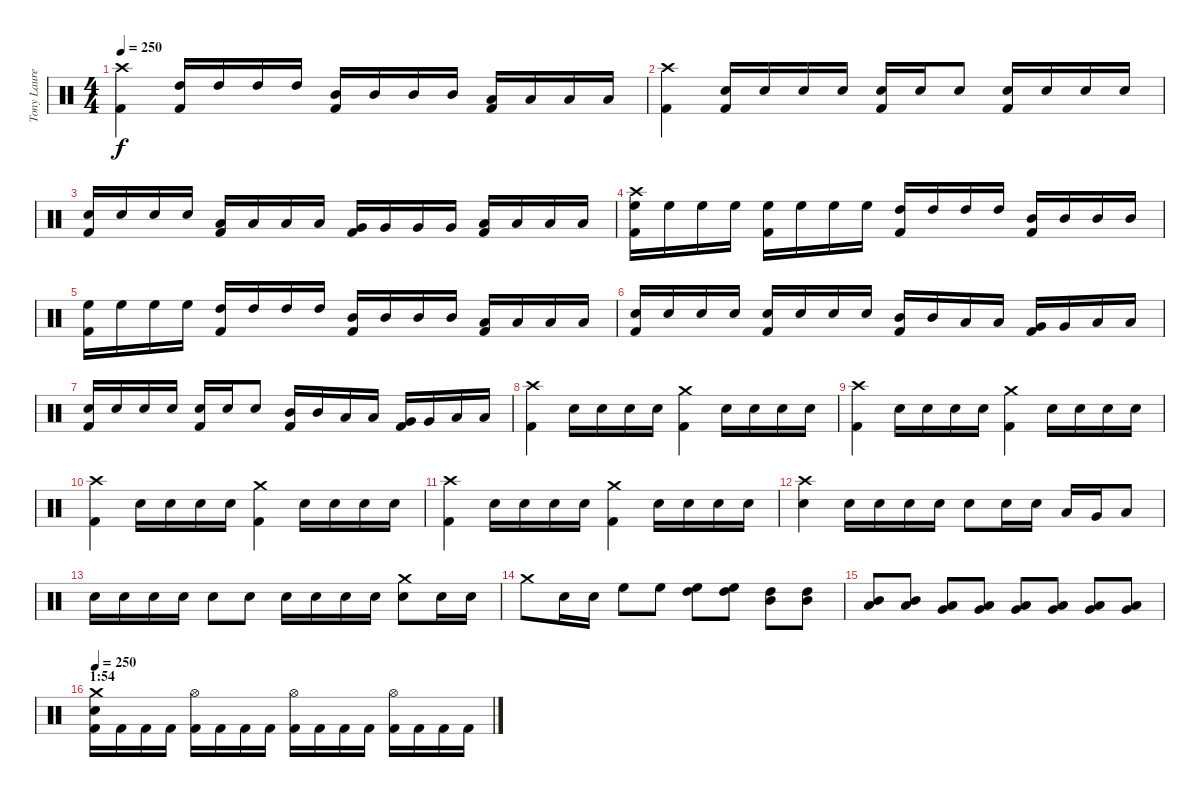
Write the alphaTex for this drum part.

\track ("Tony Laureano" "Tony Laure") {instrument percussion}
\staff {score}
\articulation defaults
\ts (4 4)
\tempo 250
\clef neutral
\ks c
("Crash high (hit)" "Kick (hit) 2").4{dy f} ("High Tom (hit)" "Kick (hit) 2").16 "High Tom (hit)".16 "High Tom (hit)".16 "High Tom (hit)".16 ("Mid Tom (hit)" "Kick (hit) 2").16 "Mid Tom (hit)".16 "Mid Tom (hit)".16 "Mid Tom (hit)".16 ("Low Tom (hit)" "Kick (hit) 2").16 "Low Tom (hit)".16 "Low Tom (hit)".16 "Low Tom (hit)".16 |
("Crash high (hit)" "Kick (hit) 2").4 ("Electric Snare (hit)" "Kick (hit) 2").16 "Electric Snare (hit)".16 "Electric Snare (hit)".16 "Electric Snare (hit)".16 ("Electric Snare (hit)" "Kick (hit) 2").16 "Electric Snare (hit)".16 "Electric Snare (hit)".8 ("Electric Snare (hit)" "Kick (hit) 2").16 "Electric Snare (hit)".16 "Electric Snare (hit)".16 "Electric Snare (hit)".16 |
("Electric Snare (hit)" "Kick (hit) 2").16 "Electric Snare (hit)".16 "Electric Snare (hit)".16 "Electric Snare (hit)".16 ("Low Tom (hit)" "Kick (hit) 2").16 "Low Tom (hit)".16 "Low Tom (hit)".16 "Low Tom (hit)".16 ("Very Low Tom (hit)" "Kick (hit) 2").16 "Very Low Tom (hit)".16 "Very Low Tom (hit)".16 "Very Low Tom (hit)".16 ("Low Floor Tom (hit)" "Kick (hit) 2").16 "Low Floor Tom (hit)".16 "Low Floor Tom (hit)".16 "Low Floor Tom (hit)".16 |
("Crash high (hit)" "High Floor Tom (hit)" "Kick (hit) 2").16 "High Floor Tom (hit)".16 "High Floor Tom (hit)".16 "High Floor Tom (hit)".16 ("High Floor Tom (hit)" "Kick (hit) 2").16 "High Floor Tom (hit)".16 "High Floor Tom (hit)".16 "High Floor Tom (hit)".16 ("High Tom (hit)" "Kick (hit) 2").16 "High Tom (hit)".16 "High Tom (hit)".16 "High Tom (hit)".16 ("Mid Tom (hit)" "Kick (hit) 2").16 "Mid Tom (hit)".16 "Mid Tom (hit)".16 "Mid Tom (hit)".16 |
("High Floor Tom (hit)" "Kick (hit) 2").16 "High Floor Tom (hit)".16 "High Floor Tom (hit)".16 "High Floor Tom (hit)".16 ("High Tom (hit)" "Kick (hit) 2").16 "High Tom (hit)".16 "High Tom (hit)".16 "High Tom (hit)".16 ("Mid Tom (hit)" "Kick (hit) 2").16 "Mid Tom (hit)".16 "Mid Tom (hit)".16 "Mid Tom (hit)".16 ("Low Tom (hit)" "Kick (hit) 2").16 "Low Tom (hit)".16 "Low Tom (hit)".16 "Low Tom (hit)".16 |
("Electric Snare (hit)" "Kick (hit) 2").16 "Electric Snare (hit)".16 "Electric Snare (hit)".16 "Electric Snare (hit)".16 ("Electric Snare (hit)" "Kick (hit) 2").16 "Electric Snare (hit)".16 "Electric Snare (hit)".16 "Electric Snare (hit)".16 ("Mid Tom (hit)" "Kick (hit) 2").16 "Mid Tom (hit)".16 "Low Tom (hit)".16 "Low Tom (hit)".16 ("Very Low Tom (hit)" "Kick (hit) 2").16 "Very Low Tom (hit)".16 "Low Floor Tom (hit)".16 "Low Floor Tom (hit)".16 |
("Electric Snare (hit)" "Kick (hit) 2").16 "Electric Snare (hit)".16 "Electric Snare (hit)".16 "Electric Snare (hit)".16 ("Electric Snare (hit)" "Kick (hit) 2").16 "Electric Snare (hit)".16 "Electric Snare (hit)".8 ("Mid Tom (hit)" "Kick (hit) 2").16 "Mid Tom (hit)".16 "Low Tom (hit)".16 "Low Tom (hit)".16 ("Very Low Tom (hit)" "Kick (hit) 2").16 "Very Low Tom (hit)".16 "Low Floor Tom (hit)".16 "Low Floor Tom (hit)".16 |
("Crash high (hit)" "Kick (hit) 2").4 "Electric Snare (hit)".16 "Electric Snare (hit)".16 "Electric Snare (hit)".16 "Electric Snare (hit)".16 ("Crash medium (hit)" "Kick (hit) 2").4 "Electric Snare (hit)".16 "Electric Snare (hit)".16 "Electric Snare (hit)".16 "Electric Snare (hit)".16 |
("Crash high (hit)" "Kick (hit) 2").4 "Electric Snare (hit)".16 "Electric Snare (hit)".16 "Electric Snare (hit)".16 "Electric Snare (hit)".16 ("Crash medium (hit)" "Kick (hit) 2").4 "Electric Snare (hit)".16 "Electric Snare (hit)".16 "Electric Snare (hit)".16 "Electric Snare (hit)".16 |
("Crash high (hit)" "Kick (hit) 2").4 "Electric Snare (hit)".16 "Electric Snare (hit)".16 "Electric Snare (hit)".16 "Electric Snare (hit)".16 ("Crash medium (hit)" "Kick (hit) 2").4 "Electric Snare (hit)".16 "Electric Snare (hit)".16 "Electric Snare (hit)".16 "Electric Snare (hit)".16 |
("Crash high (hit)" "Kick (hit) 2").4 "Electric Snare (hit)".16 "Electric Snare (hit)".16 "Electric Snare (hit)".16 "Electric Snare (hit)".16 ("Crash medium (hit)" "Kick (hit) 2").4 "Electric Snare (hit)".16 "Electric Snare (hit)".16 "Electric Snare (hit)".16 "Electric Snare (hit)".16 |
("Crash high (hit)" "Electric Snare (hit)").4 "Electric Snare (hit)".16 "Electric Snare (hit)".16 "Electric Snare (hit)".16 "Electric Snare (hit)".16 "Electric Snare (hit)".8 "Electric Snare (hit)".16 "Electric Snare (hit)".16 "Low Tom (hit)".16 "Very Low Tom (hit)".16 "Low Floor Tom (hit)".8 |
"Electric Snare (hit)".16 "Electric Snare (hit)".16 "Electric Snare (hit)".16 "Electric Snare (hit)".16 "Electric Snare (hit)".8 "Electric Snare (hit)".8 "Electric Snare (hit)".16 "Electric Snare (hit)".16 "Electric Snare (hit)".16 "Electric Snare (hit)".16 ("Crash medium (hit)" "Electric Snare (hit)").8 "Electric Snare (hit)".16 "Electric Snare (hit)".16 |
"Crash medium (hit)".8 "Electric Snare (hit)".16 "Electric Snare (hit)".16 "High Floor Tom (hit)".8 "High Floor Tom (hit)".8 ("High Tom (hit)" "High Floor Tom (hit)").8 ("High Tom (hit)" "High Floor Tom (hit)").8 ("Mid Tom (hit)" "High Tom (hit)").8 ("Mid Tom (hit)" "High Tom (hit)").8 |
("Mid Tom (hit)" "Low Tom (hit)").8 ("Mid Tom (hit)" "Low Tom (hit)").8 ("Low Tom (hit)" "Very Low Tom (hit)").8 ("Low Tom (hit)" "Very Low Tom (hit)").8 ("Very Low Tom (hit)" "Low Floor Tom (hit)").8 ("Very Low Tom (hit)" "Low Floor Tom (hit)").8 ("Very Low Tom (hit)" "Low Floor Tom (hit)").8 ("Very Low Tom (hit)" "Low Floor Tom (hit)").8 |
\section ("" "1:54")
\tempo 250
("Crash medium (hit)" "Electric Snare (hit)" "Kick (hit) 2").16 "Kick (hit) 2".16 "Kick (hit) 2".16 "Kick (hit) 2".16 ("Hi-Hat (open)" "Kick (hit) 2").16 "Kick (hit) 2".16 "Kick (hit) 2".16 "Kick (hit) 2".16 ("Hi-Hat (open)" "Kick (hit) 2").16 "Kick (hit) 2".16 "Kick (hit) 2".16 "Kick (hit) 2".16 ("Hi-Hat (open)" "Kick (hit) 2").16 "Kick (hit) 2".16 "Kick (hit) 2".16 "Kick (hit) 2".16
